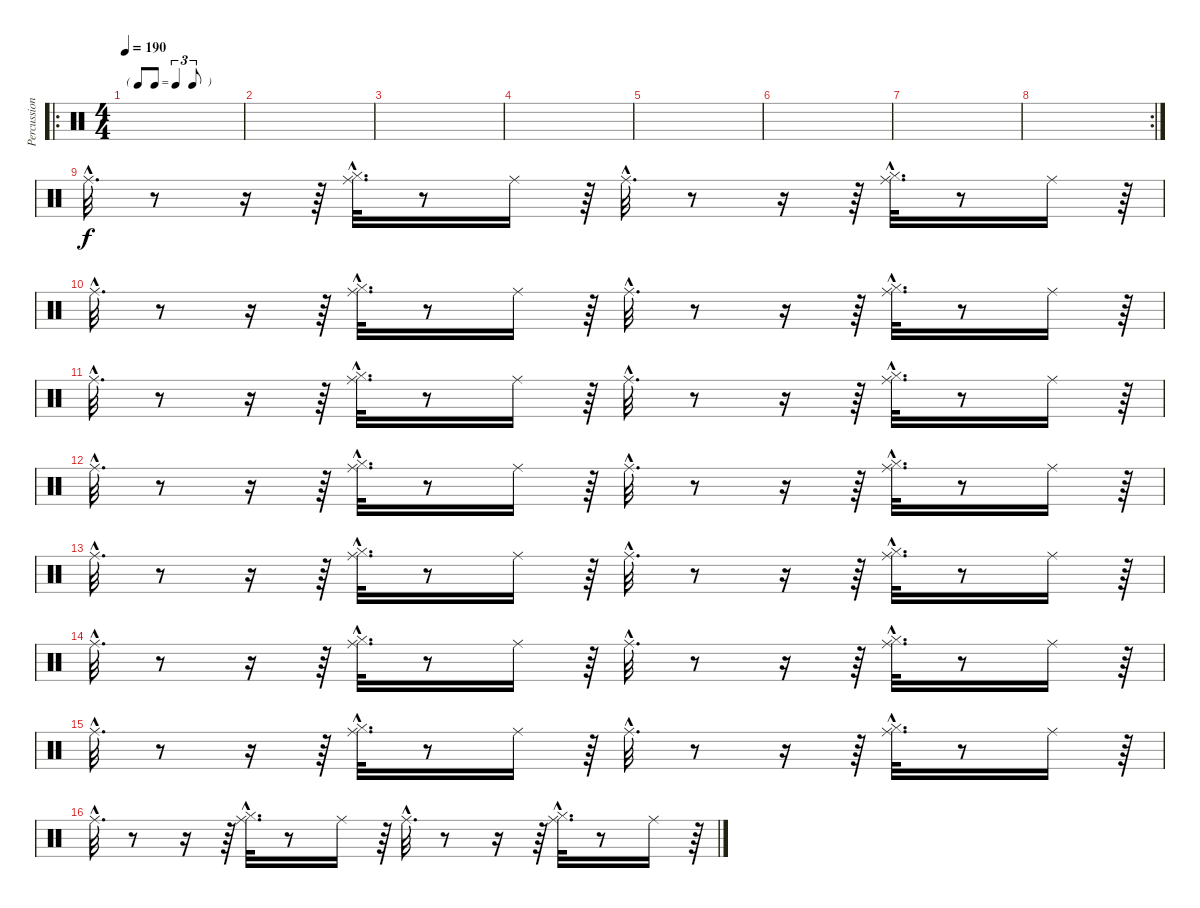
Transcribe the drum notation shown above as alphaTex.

\track ("Percussions" "Percussion") {instrument percussion}
\staff {score}
\articulation defaults
\ro
\ts (4 4)
\tf triplet8th
\tempo 190
\clef neutral
\ks c
|
|
|
|
|
|
|
\rc 2
|
"Ride (middle)"{hac}.32{d} r.8 r.16 r.64 ("Hi-Hat (closed)"{hac} "Ride (middle)"{hac}).32{d} r.8 "Ride (middle)".16 r.64 "Ride (middle)"{hac}.32{d} r.8 r.16 r.64 ("Hi-Hat (closed)"{hac} "Ride (middle)"{hac}).32{d} r.8 "Ride (middle)".16 r.64 |
"Ride (middle)"{hac}.32{d} r.8 r.16 r.64 ("Hi-Hat (closed)"{hac} "Ride (middle)"{hac}).32{d} r.8 "Ride (middle)".16 r.64 "Ride (middle)"{hac}.32{d} r.8 r.16 r.64 ("Hi-Hat (closed)"{hac} "Ride (middle)"{hac}).32{d} r.8 "Ride (middle)".16 r.64 |
"Ride (middle)"{hac}.32{d} r.8 r.16 r.64 ("Hi-Hat (closed)"{hac} "Ride (middle)"{hac}).32{d} r.8 "Ride (middle)".16 r.64 "Ride (middle)"{hac}.32{d} r.8 r.16 r.64 ("Hi-Hat (closed)"{hac} "Ride (middle)"{hac}).32{d} r.8 "Ride (middle)".16 r.64 |
"Ride (middle)"{hac}.32{d} r.8 r.16 r.64 ("Hi-Hat (closed)"{hac} "Ride (middle)"{hac}).32{d} r.8 "Ride (middle)".16 r.64 "Ride (middle)"{hac}.32{d} r.8 r.16 r.64 ("Hi-Hat (closed)"{hac} "Ride (middle)"{hac}).32{d} r.8 "Ride (middle)".16 r.64 |
"Ride (middle)"{hac}.32{d} r.8 r.16 r.64 ("Hi-Hat (closed)"{hac} "Ride (middle)"{hac}).32{d} r.8 "Ride (middle)".16 r.64 "Ride (middle)"{hac}.32{d} r.8 r.16 r.64 ("Hi-Hat (closed)"{hac} "Ride (middle)"{hac}).32{d} r.8 "Ride (middle)".16 r.64 |
"Ride (middle)"{hac}.32{d} r.8 r.16 r.64 ("Hi-Hat (closed)"{hac} "Ride (middle)"{hac}).32{d} r.8 "Ride (middle)".16 r.64 "Ride (middle)"{hac}.32{d} r.8 r.16 r.64 ("Hi-Hat (closed)"{hac} "Ride (middle)"{hac}).32{d} r.8 "Ride (middle)".16 r.64 |
"Ride (middle)"{hac}.32{d} r.8 r.16 r.64 ("Hi-Hat (closed)"{hac} "Ride (middle)"{hac}).32{d} r.8 "Ride (middle)".16 r.64 "Ride (middle)"{hac}.32{d} r.8 r.16 r.64 ("Hi-Hat (closed)"{hac} "Ride (middle)"{hac}).32{d} r.8 "Ride (middle)".16 r.64 |
"Ride (middle)"{hac}.32{d} r.8 r.16 r.64 ("Hi-Hat (closed)"{hac} "Ride (middle)"{hac}).32{d} r.8 "Ride (middle)".16 r.64 "Ride (middle)"{hac}.32{d} r.8 r.16 r.64 ("Hi-Hat (closed)"{hac} "Ride (middle)"{hac}).32{d} r.8 "Ride (middle)".16 r.64
